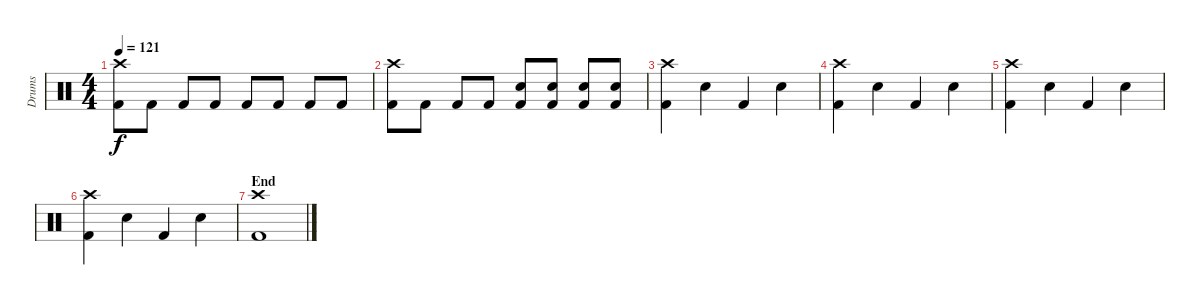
\track ("Drums" "Drums") {instrument percussion}
\staff {score}
\articulation defaults
\ts (4 4)
\tempo 121
\clef neutral
\ks c
("Crash high (hit)" "Kick (hit) 2").8{dy f} "Kick (hit) 2".8 "Kick (hit) 2".8 "Kick (hit) 2".8 "Kick (hit) 2".8 "Kick (hit) 2".8 "Kick (hit) 2".8 "Kick (hit) 2".8 |
("Crash high (hit)" "Kick (hit) 2").8 "Kick (hit) 2".8 "Kick (hit) 2".8 "Kick (hit) 2".8 ("Snare (hit) 2" "Kick (hit) 2").8 ("Snare (hit) 2" "Kick (hit) 2").8 ("Snare (hit) 2" "Kick (hit) 2").8 ("Snare (hit) 2" "Kick (hit) 2").8 |
("Crash high (hit)" "Kick (hit) 2").4 "Snare (hit) 2".4 "Kick (hit) 2".4 "Snare (hit) 2".4 |
("Crash high (hit)" "Kick (hit) 2").4 "Snare (hit) 2".4 "Kick (hit) 2".4 "Snare (hit) 2".4 |
("Crash high (hit)" "Kick (hit) 2").4 "Snare (hit) 2".4 "Kick (hit) 2".4 "Snare (hit) 2".4 |
("Crash high (hit)" "Kick (hit) 2").4 "Snare (hit) 2".4 "Kick (hit) 2".4 "Snare (hit) 2".4 |
\section ("" "End")
("Crash high (hit)" "Kick (hit) 2").1
